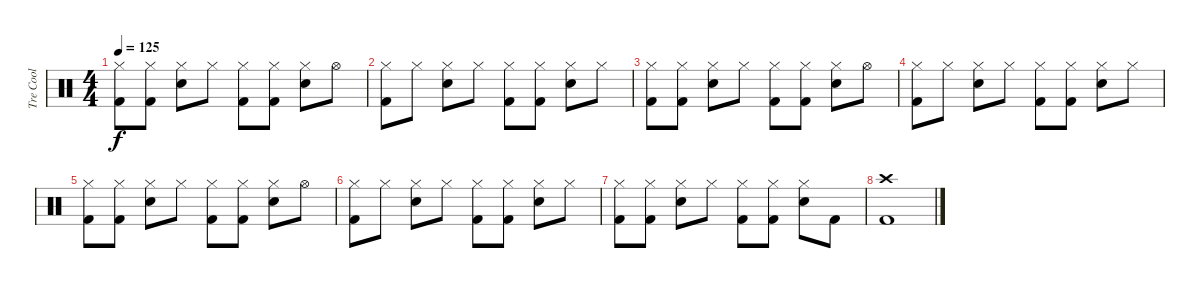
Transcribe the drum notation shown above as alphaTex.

\track ("Tre Cool" "Tre Cool") {instrument percussion}
\staff {score}
\articulation defaults
\ts (4 4)
\tempo 125
\clef neutral
\ks c
("Hi-Hat (closed)" "Kick (hit) 2").8{dy f} ("Hi-Hat (closed)" "Kick (hit) 2").8 ("Hi-Hat (closed)" "Electric Snare (hit)").8 "Hi-Hat (closed)".8 ("Hi-Hat (closed)" "Kick (hit) 2").8 ("Hi-Hat (closed)" "Kick (hit) 2").8 ("Hi-Hat (closed)" "Electric Snare (hit)").8 "Hi-Hat (open)".8 |
("Hi-Hat (closed)" "Kick (hit) 2").8 "Hi-Hat (closed)".8 ("Hi-Hat (closed)" "Electric Snare (hit)").8 "Hi-Hat (closed)".8 ("Hi-Hat (closed)" "Kick (hit) 2").8 ("Hi-Hat (closed)" "Kick (hit) 2").8 ("Hi-Hat (closed)" "Electric Snare (hit)").8 "Hi-Hat (closed)".8 |
("Hi-Hat (closed)" "Kick (hit) 2").8 ("Hi-Hat (closed)" "Kick (hit) 2").8 ("Hi-Hat (closed)" "Electric Snare (hit)").8 "Hi-Hat (closed)".8 ("Hi-Hat (closed)" "Kick (hit) 2").8 ("Hi-Hat (closed)" "Kick (hit) 2").8 ("Hi-Hat (closed)" "Electric Snare (hit)").8 "Hi-Hat (open)".8 |
("Hi-Hat (closed)" "Kick (hit) 2").8 "Hi-Hat (closed)".8 ("Hi-Hat (closed)" "Electric Snare (hit)").8 "Hi-Hat (closed)".8 ("Hi-Hat (closed)" "Kick (hit) 2").8 ("Hi-Hat (closed)" "Kick (hit) 2").8 ("Hi-Hat (closed)" "Electric Snare (hit)").8 "Hi-Hat (closed)".8 |
("Hi-Hat (closed)" "Kick (hit) 2").8 ("Hi-Hat (closed)" "Kick (hit) 2").8 ("Hi-Hat (closed)" "Electric Snare (hit)").8 "Hi-Hat (closed)".8 ("Hi-Hat (closed)" "Kick (hit) 2").8 ("Hi-Hat (closed)" "Kick (hit) 2").8 ("Hi-Hat (closed)" "Electric Snare (hit)").8 "Hi-Hat (open)".8 |
("Hi-Hat (closed)" "Kick (hit) 2").8 "Hi-Hat (closed)".8 ("Hi-Hat (closed)" "Electric Snare (hit)").8 "Hi-Hat (closed)".8 ("Hi-Hat (closed)" "Kick (hit) 2").8 ("Hi-Hat (closed)" "Kick (hit) 2").8 ("Hi-Hat (closed)" "Electric Snare (hit)").8 "Hi-Hat (closed)".8 |
("Hi-Hat (closed)" "Kick (hit) 2").8 ("Hi-Hat (closed)" "Kick (hit) 2").8 ("Hi-Hat (closed)" "Electric Snare (hit)").8 "Hi-Hat (closed)".8 ("Hi-Hat (closed)" "Kick (hit) 2").8 ("Hi-Hat (closed)" "Kick (hit) 2").8 ("Hi-Hat (closed)" "Electric Snare (hit)").8 "Kick (hit) 2".8 |
("Crash high (hit)" "Kick (hit) 2").1
